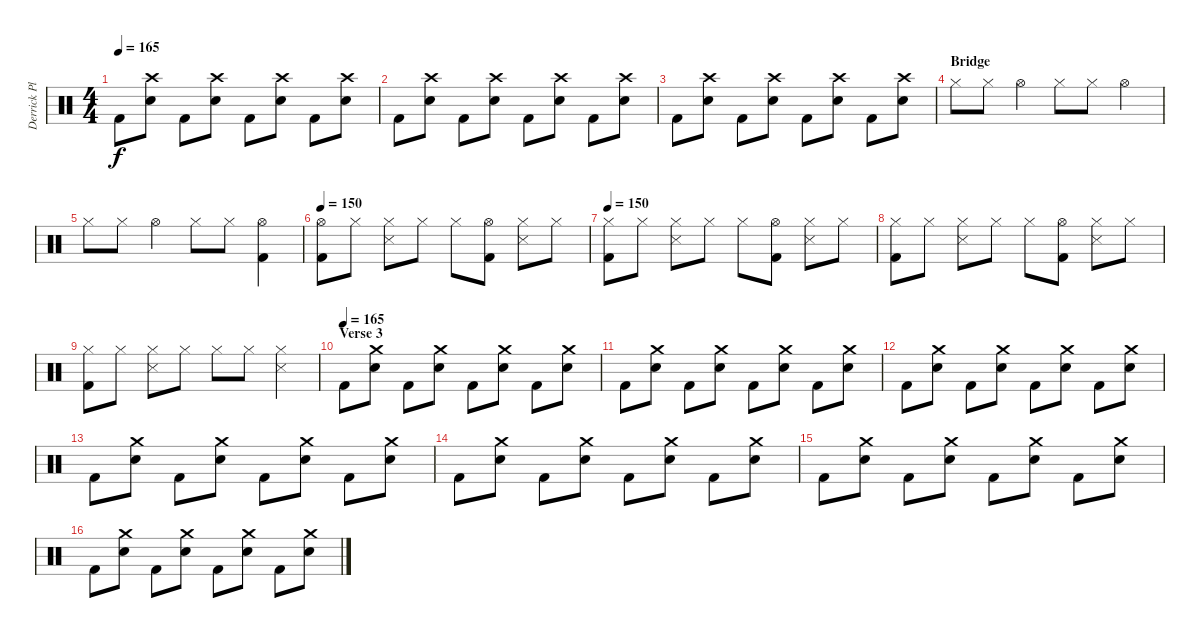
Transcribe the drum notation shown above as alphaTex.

\track ("Derrick Plourde (R.I.P.)" "Derrick Pl") {instrument percussion}
\staff {score}
\articulation defaults
\ts (4 4)
\tempo 165
\clef neutral
\ks c "Kick (hit) 2".8{dy f}
("Electric Snare (hit)" "Crash high (hit)").8 "Kick (hit) 2".8 ("Electric Snare (hit)" "Crash high (hit)").8 "Kick (hit) 2".8 ("Electric Snare (hit)" "Crash high (hit)").8 "Kick (hit) 2".8 ("Electric Snare (hit)" "Crash high (hit)").8 |
"Kick (hit) 2".8 ("Electric Snare (hit)" "Crash high (hit)").8 "Kick (hit) 2".8 ("Electric Snare (hit)" "Crash high (hit)").8 "Kick (hit) 2".8 ("Electric Snare (hit)" "Crash high (hit)").8 "Kick (hit) 2".8 ("Electric Snare (hit)" "Crash high (hit)").8 |
"Kick (hit) 2".8 ("Electric Snare (hit)" "Crash high (hit)").8 "Kick (hit) 2".8 ("Electric Snare (hit)" "Crash high (hit)").8 "Kick (hit) 2".8 ("Electric Snare (hit)" "Crash high (hit)").8 "Kick (hit) 2".8 ("Electric Snare (hit)" "Crash high (hit)").8 |
\section ("" "Bridge")
"Hi-Hat (closed)".8 "Hi-Hat (closed)".8 "Hi-Hat (open)".4 "Hi-Hat (closed)".8 "Hi-Hat (closed)".8 "Hi-Hat (open)".4 |
"Hi-Hat (closed)".8 "Hi-Hat (closed)".8 "Hi-Hat (open)".4 "Hi-Hat (closed)".8 "Hi-Hat (closed)".8 ("Hi-Hat (open)" "Kick (hit) 2").4 |
\tempo 150
("Hi-Hat (open)" "Kick (hit) 2").8 "Hi-Hat (closed)".8 ("Hi-Hat (closed)" "Snare (side stick) 3").8 "Hi-Hat (closed)".8 "Hi-Hat (closed)".8 ("Hi-Hat (open)" "Kick (hit) 2").8 ("Hi-Hat (closed)" "Snare (side stick) 3").8 "Hi-Hat (closed)".8 |
\tempo 150
("Hi-Hat (closed)" "Kick (hit) 2").8 "Hi-Hat (closed)".8 ("Hi-Hat (closed)" "Snare (side stick) 3").8 "Hi-Hat (closed)".8 "Hi-Hat (closed)".8 ("Hi-Hat (open)" "Kick (hit) 2").8 ("Hi-Hat (closed)" "Snare (side stick) 3").8 "Hi-Hat (closed)".8 |
("Hi-Hat (closed)" "Kick (hit) 2").8 "Hi-Hat (closed)".8 ("Hi-Hat (closed)" "Snare (side stick) 3").8 "Hi-Hat (closed)".8 "Hi-Hat (closed)".8 ("Hi-Hat (open)" "Kick (hit) 2").8 ("Hi-Hat (closed)" "Snare (side stick) 3").8 "Hi-Hat (closed)".8 |
("Hi-Hat (closed)" "Kick (hit) 2").8 "Hi-Hat (closed)".8 ("Hi-Hat (closed)" "Snare (side stick) 3").8 "Hi-Hat (closed)".8 "Hi-Hat (closed)".8 "Hi-Hat (closed)".8 ("Hi-Hat (closed)" "Snare (side stick) 3").4 |
\section ("" "Verse 3")
\tempo (165)
"Kick (hit) 2".8 ("Electric Snare (hit)" "Crash medium (hit)").8 "Kick (hit) 2".8 ("Electric Snare (hit)" "Crash medium (hit)").8 "Kick (hit) 2".8 ("Electric Snare (hit)" "Crash medium (hit)").8 "Kick (hit) 2".8 ("Electric Snare (hit)" "Crash medium (hit)").8 |
"Kick (hit) 2".8 ("Electric Snare (hit)" "Crash medium (hit)").8 "Kick (hit) 2".8 ("Electric Snare (hit)" "Crash medium (hit)").8 "Kick (hit) 2".8 ("Electric Snare (hit)" "Crash medium (hit)").8 "Kick (hit) 2".8 ("Electric Snare (hit)" "Crash medium (hit)").8 |
"Kick (hit) 2".8 ("Electric Snare (hit)" "Crash medium (hit)").8 "Kick (hit) 2".8 ("Electric Snare (hit)" "Crash medium (hit)").8 "Kick (hit) 2".8 ("Electric Snare (hit)" "Crash medium (hit)").8 "Kick (hit) 2".8 ("Electric Snare (hit)" "Crash medium (hit)").8 |
"Kick (hit) 2".8 ("Electric Snare (hit)" "Crash medium (hit)").8 "Kick (hit) 2".8 ("Electric Snare (hit)" "Crash medium (hit)").8 "Kick (hit) 2".8 ("Electric Snare (hit)" "Crash medium (hit)").8 "Kick (hit) 2".8 ("Electric Snare (hit)" "Crash medium (hit)").8 |
"Kick (hit) 2".8 ("Electric Snare (hit)" "Crash medium (hit)").8 "Kick (hit) 2".8 ("Electric Snare (hit)" "Crash medium (hit)").8 "Kick (hit) 2".8 ("Electric Snare (hit)" "Crash medium (hit)").8 "Kick (hit) 2".8 ("Electric Snare (hit)" "Crash medium (hit)").8 |
"Kick (hit) 2".8 ("Electric Snare (hit)" "Crash medium (hit)").8 "Kick (hit) 2".8 ("Electric Snare (hit)" "Crash medium (hit)").8 "Kick (hit) 2".8 ("Electric Snare (hit)" "Crash medium (hit)").8 "Kick (hit) 2".8 ("Electric Snare (hit)" "Crash medium (hit)").8 |
"Kick (hit) 2".8 ("Electric Snare (hit)" "Crash medium (hit)").8 "Kick (hit) 2".8 ("Electric Snare (hit)" "Crash medium (hit)").8 "Kick (hit) 2".8 ("Electric Snare (hit)" "Crash medium (hit)").8 "Kick (hit) 2".8 ("Electric Snare (hit)" "Crash medium (hit)").8
